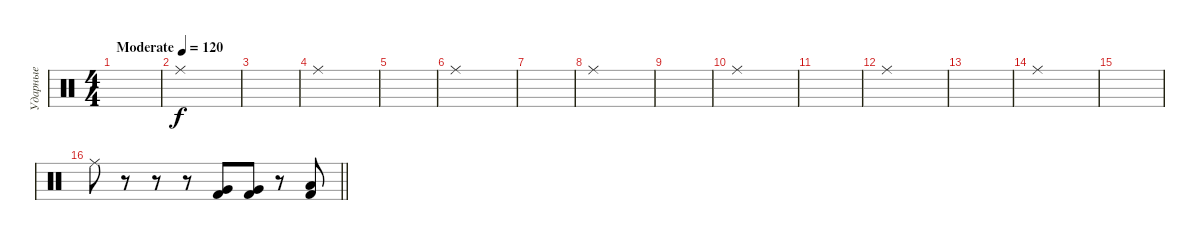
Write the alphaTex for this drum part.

\track ("Ударные" "Ударные") {instrument percussion}
\staff {score}
\articulation defaults
\ts (4 4)
\tempo (120 "Moderate")
\clef neutral
\ks c
|
"Ride (middle)".1 |
|
"Ride (middle)".1 |
|
"Ride (middle)".1 |
|
"Ride (middle)".1 |
|
"Ride (middle)".1 |
|
"Ride (middle)".1 |
|
"Ride (middle)".1 |
|
\barLineRight lightlight "Ride (middle)".8
r.8 r.8 r.8 ("Very Low Tom (hit)" "Kick (hit) 2").8 ("Very Low Tom (hit)" "Kick (hit) 2").8 r.8 ("Low Tom (hit)" "Kick (hit) 2").8
